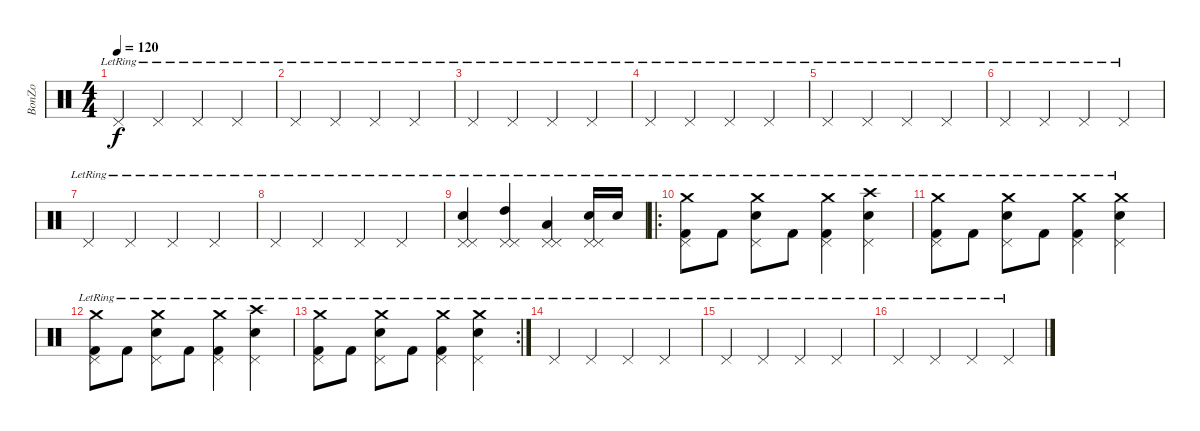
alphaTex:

\track ("BonZo" "BonZo") {instrument percussion}
\staff {score}
\articulation defaults
\ts (4 4)
\tempo 120
\clef neutral
\ks c "Pedal Hi-Hat (hit)"{lr}.4{dy f} "Pedal Hi-Hat (hit)"{lr}.4 "Pedal Hi-Hat (hit)"{lr}.4 "Pedal Hi-Hat (hit)"{lr}.4
|
"Pedal Hi-Hat (hit)"{lr}.4 "Pedal Hi-Hat (hit)"{lr}.4 "Pedal Hi-Hat (hit)"{lr}.4 "Pedal Hi-Hat (hit)"{lr}.4 |
"Pedal Hi-Hat (hit)"{lr}.4 "Pedal Hi-Hat (hit)"{lr}.4 "Pedal Hi-Hat (hit)"{lr}.4 "Pedal Hi-Hat (hit)"{lr}.4 |
"Pedal Hi-Hat (hit)"{lr}.4 "Pedal Hi-Hat (hit)"{lr}.4 "Pedal Hi-Hat (hit)"{lr}.4 "Pedal Hi-Hat (hit)"{lr}.4 |
"Pedal Hi-Hat (hit)"{lr}.4 "Pedal Hi-Hat (hit)"{lr}.4 "Pedal Hi-Hat (hit)"{lr}.4 "Pedal Hi-Hat (hit)"{lr}.4 |
"Pedal Hi-Hat (hit)"{lr}.4 "Pedal Hi-Hat (hit)"{lr}.4 "Pedal Hi-Hat (hit)"{lr}.4 "Pedal Hi-Hat (hit)"{lr}.4 |
"Pedal Hi-Hat (hit)"{lr}.4 "Pedal Hi-Hat (hit)"{lr}.4 "Pedal Hi-Hat (hit)"{lr}.4 "Pedal Hi-Hat (hit)"{lr}.4 |
"Pedal Hi-Hat (hit)"{lr}.4 "Pedal Hi-Hat (hit)"{lr}.4 "Pedal Hi-Hat (hit)"{lr}.4 "Pedal Hi-Hat (hit)"{lr}.4 |
("Electric Snare (hit)"{lr} "Pedal Hi-Hat (hit)"{lr} "Pedal Hi-Hat (hit)"{lr}).4 ("High Tom (hit)"{lr} "Pedal Hi-Hat (hit)"{lr} "Pedal Hi-Hat (hit)"{lr}).4 ("Low Tom (hit)"{lr} "Pedal Hi-Hat (hit)"{lr} "Pedal Hi-Hat (hit)"{lr}).4 ("Electric Snare (hit)"{lr} "Pedal Hi-Hat (hit)"{lr} "Pedal Hi-Hat (hit)"{lr}).16 "Electric Snare (hit)"{lr}.16 |
\ro
("Kick (hit) 2"{lr} "Crash medium (hit)"{lr} "Pedal Hi-Hat (hit)"{lr}).8 "Kick (hit) 2"{lr}.8 ("Electric Snare (hit)"{lr} "Crash medium (hit)"{lr} "Pedal Hi-Hat (hit)"{lr}).8 "Kick (hit) 2"{lr}.8 ("Kick (hit) 2"{lr} "Crash medium (hit)"{lr} "Pedal Hi-Hat (hit)"{lr}).4 ("Electric Snare (hit)"{lr} "Crash high (hit)"{lr} "Pedal Hi-Hat (hit)"{lr}).4 |
("Kick (hit) 2"{lr} "Crash medium (hit)"{lr} "Pedal Hi-Hat (hit)"{lr}).8 "Kick (hit) 2"{lr}.8 ("Electric Snare (hit)"{lr} "Crash medium (hit)"{lr} "Pedal Hi-Hat (hit)"{lr}).8 "Kick (hit) 2"{lr}.8 ("Kick (hit) 2"{lr} "Crash medium (hit)"{lr} "Pedal Hi-Hat (hit)"{lr}).4 ("Electric Snare (hit)"{lr} "Crash medium (hit)"{lr} "Pedal Hi-Hat (hit)"{lr}).4 |
("Kick (hit) 2"{lr} "Crash medium (hit)"{lr} "Pedal Hi-Hat (hit)"{lr}).8 "Kick (hit) 2"{lr}.8 ("Electric Snare (hit)"{lr} "Crash medium (hit)"{lr} "Pedal Hi-Hat (hit)"{lr}).8 "Kick (hit) 2"{lr}.8 ("Kick (hit) 2"{lr} "Crash medium (hit)"{lr} "Pedal Hi-Hat (hit)"{lr}).4 ("Electric Snare (hit)"{lr} "Crash high (hit)"{lr} "Pedal Hi-Hat (hit)"{lr}).4 |
\rc 2
("Kick (hit) 2"{lr} "Crash medium (hit)"{lr} "Pedal Hi-Hat (hit)"{lr}).8 "Kick (hit) 2"{lr}.8 ("Electric Snare (hit)"{lr} "Crash medium (hit)"{lr} "Pedal Hi-Hat (hit)"{lr}).8 "Kick (hit) 2"{lr}.8 ("Kick (hit) 2"{lr} "Crash medium (hit)"{lr} "Pedal Hi-Hat (hit)"{lr}).4 ("Electric Snare (hit)"{lr} "Crash medium (hit)"{lr} "Pedal Hi-Hat (hit)"{lr}).4 |
"Pedal Hi-Hat (hit)"{lr}.4 "Pedal Hi-Hat (hit)"{lr}.4 "Pedal Hi-Hat (hit)"{lr}.4 "Pedal Hi-Hat (hit)"{lr}.4 |
"Pedal Hi-Hat (hit)"{lr}.4 "Pedal Hi-Hat (hit)"{lr}.4 "Pedal Hi-Hat (hit)"{lr}.4 "Pedal Hi-Hat (hit)"{lr}.4 |
"Pedal Hi-Hat (hit)"{lr}.4 "Pedal Hi-Hat (hit)"{lr}.4 "Pedal Hi-Hat (hit)"{lr}.4 "Pedal Hi-Hat (hit)"{lr}.4
